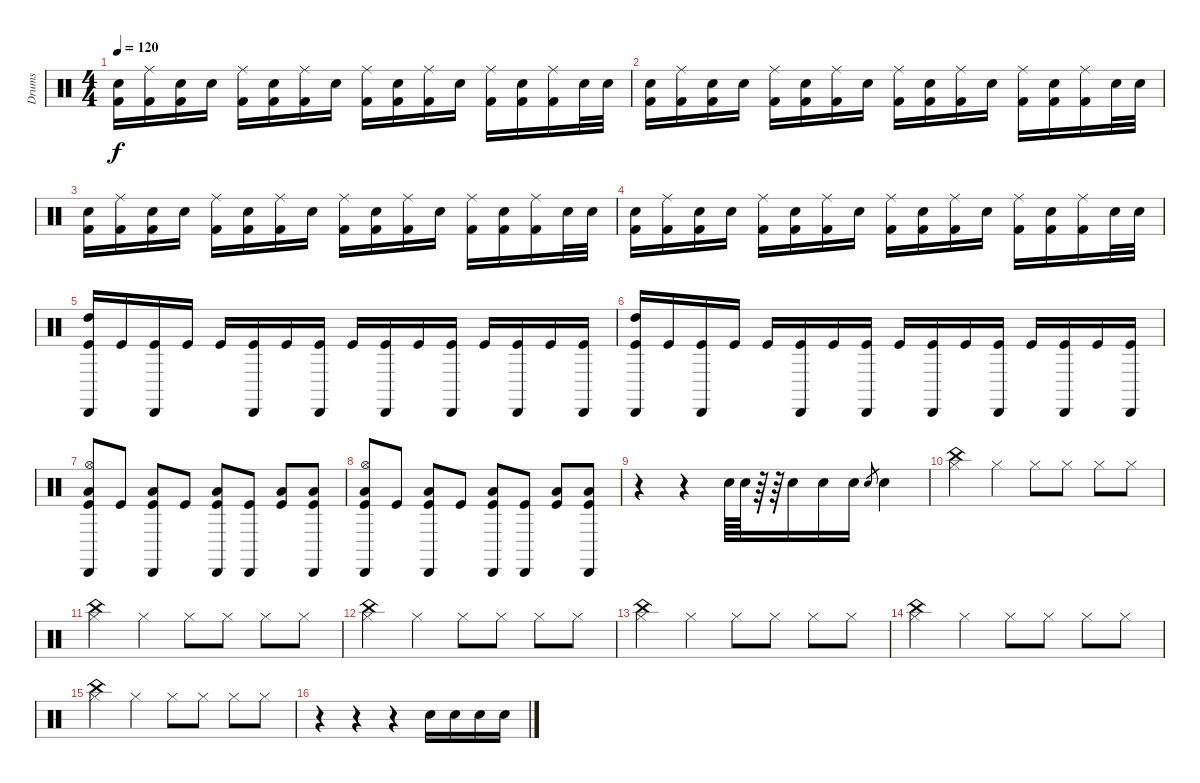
\track ("Drums" "Drums") {instrument percussion}
\staff {score}
\articulation defaults
\ts (4 4)
\tempo 120
\clef neutral
\ks c
("Electric Snare (hit)" "Kick (hit) 2").16{dy f} ("Ride (middle)" "Kick (hit) 2").16 ("Electric Snare (hit)" "Kick (hit) 2").16 "Snare (hit) 2".16 ("Ride (middle)" "Kick (hit) 2").16 ("Electric Snare (hit)" "Kick (hit) 2").16 ("Ride (middle)" "Kick (hit) 2").16 "Snare (hit) 2".16 ("Ride (middle)" "Kick (hit) 2").16 ("Electric Snare (hit)" "Kick (hit) 2").16 ("Ride (middle)" "Kick (hit) 2").16 "Snare (hit) 2".16 ("Ride (middle)" "Kick (hit) 2").16 ("Electric Snare (hit)" "Kick (hit) 2").16 ("Ride (middle)" "Kick (hit) 2").16 "Electric Snare (hit)".32 "Electric Snare (hit)".32 |
("Electric Snare (hit)" "Kick (hit) 2").16 ("Ride (middle)" "Kick (hit) 2").16 ("Electric Snare (hit)" "Kick (hit) 2").16 "Snare (hit) 2".16 ("Ride (middle)" "Kick (hit) 2").16 ("Electric Snare (hit)" "Kick (hit) 2").16 ("Ride (middle)" "Kick (hit) 2").16 "Snare (hit) 2".16 ("Ride (middle)" "Kick (hit) 2").16 ("Electric Snare (hit)" "Kick (hit) 2").16 ("Ride (middle)" "Kick (hit) 2").16 "Snare (hit) 2".16 ("Ride (middle)" "Kick (hit) 2").16 ("Electric Snare (hit)" "Kick (hit) 2").16 ("Ride (middle)" "Kick (hit) 2").16 "Electric Snare (hit)".32 "Electric Snare (hit)".32 |
("Electric Snare (hit)" "Kick (hit) 2").16 ("Ride (middle)" "Kick (hit) 2").16 ("Electric Snare (hit)" "Kick (hit) 2").16 "Snare (hit) 2".16 ("Ride (middle)" "Kick (hit) 2").16 ("Electric Snare (hit)" "Kick (hit) 2").16 ("Ride (middle)" "Kick (hit) 2").16 "Snare (hit) 2".16 ("Ride (middle)" "Kick (hit) 2").16 ("Electric Snare (hit)" "Kick (hit) 2").16 ("Ride (middle)" "Kick (hit) 2").16 "Snare (hit) 2".16 ("Ride (middle)" "Kick (hit) 2").16 ("Electric Snare (hit)" "Kick (hit) 2").16 ("Ride (middle)" "Kick (hit) 2").16 "Electric Snare (hit)".32 "Electric Snare (hit)".32 |
("Electric Snare (hit)" "Kick (hit) 2").16 ("Ride (middle)" "Kick (hit) 2").16 ("Electric Snare (hit)" "Kick (hit) 2").16 "Snare (hit) 2".16 ("Ride (middle)" "Kick (hit) 2").16 ("Electric Snare (hit)" "Kick (hit) 2").16 ("Ride (middle)" "Kick (hit) 2").16 "Snare (hit) 2".16 ("Ride (middle)" "Kick (hit) 2").16 ("Electric Snare (hit)" "Kick (hit) 2").16 ("Ride (middle)" "Kick (hit) 2").16 "Snare (hit) 2".16 ("Ride (middle)" "Kick (hit) 2").16 ("Electric Snare (hit)" "Kick (hit) 2").16 ("Ride (middle)" "Kick (hit) 2").16 "Electric Snare (hit)".32 "Electric Snare (hit)".32 |
("Cabasa (hit)" "High Tom (hit)" "Kick (hit)").16 "Kick (hit)".16 ("Cabasa (hit)" "Kick (hit)").16 "Kick (hit)".16 "Kick (hit)".16 ("Cabasa (hit)" "Kick (hit)").16 "Kick (hit)".16 ("Cabasa (hit)" "Kick (hit)").16 "Kick (hit)".16 ("Cabasa (hit)" "Kick (hit)").16 "Kick (hit)".16 ("Cabasa (hit)" "Kick (hit)").16 "Kick (hit)".16 ("Cabasa (hit)" "Kick (hit)").16 "Kick (hit)".16 ("Cabasa (hit)" "Kick (hit)").16 |
("Cabasa (hit)" "High Tom (hit)" "Kick (hit)").16 "Kick (hit)".16 ("Cabasa (hit)" "Kick (hit)").16 "Kick (hit)".16 "Kick (hit)".16 ("Cabasa (hit)" "Kick (hit)").16 "Kick (hit)".16 ("Cabasa (hit)" "Kick (hit)").16 "Kick (hit)".16 ("Cabasa (hit)" "Kick (hit)").16 "Kick (hit)".16 ("Cabasa (hit)" "Kick (hit)").16 "Kick (hit)".16 ("Cabasa (hit)" "Kick (hit)").16 "Kick (hit)".16 ("Cabasa (hit)" "Kick (hit)").16 |
("Hi-Hat (open)" "Cabasa (hit)" "Low Floor Tom (hit)" "Kick (hit)").8 "Kick (hit)".8 ("Cabasa (hit)" "Low Floor Tom (hit)" "Kick (hit)").8 "Kick (hit)".8 ("Cabasa (hit)" "Low Floor Tom (hit)" "Kick (hit)").8 ("Cabasa (hit)" "Kick (hit)").8 ("Low Floor Tom (hit)" "Kick (hit)").8 ("Cabasa (hit)" "Low Floor Tom (hit)" "Kick (hit)").8 |
("Hi-Hat (open)" "Cabasa (hit)" "Low Floor Tom (hit)" "Kick (hit)").8 "Kick (hit)".8 ("Cabasa (hit)" "Low Floor Tom (hit)" "Kick (hit)").8 "Kick (hit)".8 ("Cabasa (hit)" "Low Floor Tom (hit)" "Kick (hit)").8 ("Cabasa (hit)" "Kick (hit)").8 ("Low Floor Tom (hit)" "Kick (hit)").8 ("Cabasa (hit)" "Low Floor Tom (hit)" "Kick (hit)").8 |
r.4 r.4 "Snare (hit) 2".64 "Snare (hit) 2".64 r.64 r.64 "Electric Snare (hit)".16 "Snare (hit) 2".16 "Snare (hit) 2".16 "Snare (hit) 2".8{gr} "Snare (hit) 2".4 |
("China (hit)" "Hi-Hat (closed)").4 "Hi-Hat (closed)".4 "Hi-Hat (closed)".8 "Hi-Hat (closed)".8 "Hi-Hat (closed)".8 "Hi-Hat (closed)".8 |
("China (hit)" "Hi-Hat (closed)").4 "Hi-Hat (closed)".4 "Hi-Hat (closed)".8 "Hi-Hat (closed)".8 "Hi-Hat (closed)".8 "Hi-Hat (closed)".8 |
("China (hit)" "Hi-Hat (closed)").4 "Hi-Hat (closed)".4 "Hi-Hat (closed)".8 "Hi-Hat (closed)".8 "Hi-Hat (closed)".8 "Hi-Hat (closed)".8 |
("China (hit)" "Hi-Hat (closed)").4 "Hi-Hat (closed)".4 "Hi-Hat (closed)".8 "Hi-Hat (closed)".8 "Hi-Hat (closed)".8 "Hi-Hat (closed)".8 |
("China (hit)" "Hi-Hat (closed)").4 "Hi-Hat (closed)".4 "Hi-Hat (closed)".8 "Hi-Hat (closed)".8 "Hi-Hat (closed)".8 "Hi-Hat (closed)".8 |
("China (hit)" "Hi-Hat (closed)").4 "Hi-Hat (closed)".4 "Hi-Hat (closed)".8 "Hi-Hat (closed)".8 "Hi-Hat (closed)".8 "Hi-Hat (closed)".8 |
r.4 r.4 r.4 "Snare (hit) 2".16 "Snare (hit) 2".16 "Snare (hit) 2".16 "Snare (hit) 2".16
